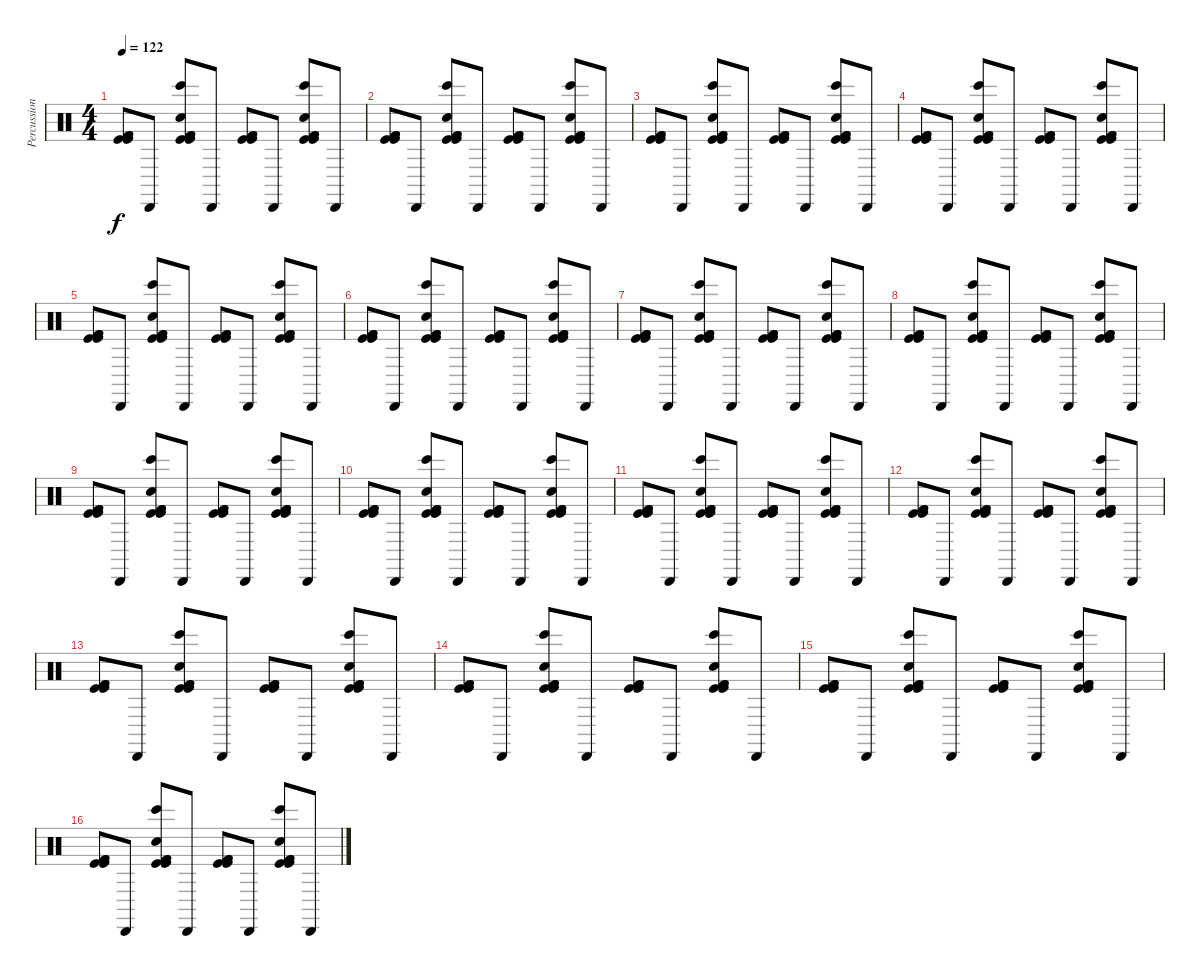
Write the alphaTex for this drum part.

\track ("Percussion" "Percussion") {instrument percussion}
\staff {score}
\articulation defaults
\ts (4 4)
\tempo 122
\clef neutral
\ks c
("Kick (hit)" "Kick (hit) 2" "Kick (hit) 2" "Kick (hit)").8{dy f} "Cabasa (hit)".8 ("Hand Clap (hit)" "Bongo High (hit)" "Kick (hit)" "Kick (hit)" "Kick (hit) 2" "Kick (hit) 2").8 "Cabasa (hit)".8 ("Kick (hit)" "Kick (hit)" "Kick (hit) 2" "Kick (hit) 2").8 "Cabasa (hit)".8 ("Hand Clap (hit)" "Bongo High (hit)" "Kick (hit) 2" "Kick (hit) 2" "Kick (hit)" "Kick (hit)").8 "Cabasa (hit)".8 |
("Kick (hit)" "Kick (hit) 2" "Kick (hit) 2" "Kick (hit)").8 "Cabasa (hit)".8 ("Hand Clap (hit)" "Bongo High (hit)" "Kick (hit)" "Kick (hit)" "Kick (hit) 2" "Kick (hit) 2").8 "Cabasa (hit)".8 ("Kick (hit)" "Kick (hit)" "Kick (hit) 2" "Kick (hit) 2").8 "Cabasa (hit)".8 ("Hand Clap (hit)" "Bongo High (hit)" "Kick (hit) 2" "Kick (hit) 2" "Kick (hit)" "Kick (hit)").8 "Cabasa (hit)".8 |
("Kick (hit)" "Kick (hit) 2" "Kick (hit) 2" "Kick (hit)").8 "Cabasa (hit)".8 ("Hand Clap (hit)" "Bongo High (hit)" "Kick (hit)" "Kick (hit)" "Kick (hit) 2" "Kick (hit) 2").8 "Cabasa (hit)".8 ("Kick (hit)" "Kick (hit)" "Kick (hit) 2" "Kick (hit) 2").8 "Cabasa (hit)".8 ("Hand Clap (hit)" "Bongo High (hit)" "Kick (hit) 2" "Kick (hit) 2" "Kick (hit)" "Kick (hit)").8 "Cabasa (hit)".8 |
("Kick (hit)" "Kick (hit) 2" "Kick (hit) 2" "Kick (hit)").8 "Cabasa (hit)".8 ("Hand Clap (hit)" "Bongo High (hit)" "Kick (hit)" "Kick (hit)" "Kick (hit) 2" "Kick (hit) 2").8 "Cabasa (hit)".8 ("Kick (hit)" "Kick (hit)" "Kick (hit) 2" "Kick (hit) 2").8 "Cabasa (hit)".8 ("Hand Clap (hit)" "Bongo High (hit)" "Kick (hit) 2" "Kick (hit) 2" "Kick (hit)" "Kick (hit)").8 "Cabasa (hit)".8 |
("Kick (hit)" "Kick (hit) 2" "Kick (hit) 2" "Kick (hit)").8 "Cabasa (hit)".8 ("Hand Clap (hit)" "Bongo High (hit)" "Kick (hit)" "Kick (hit)" "Kick (hit) 2" "Kick (hit) 2").8 "Cabasa (hit)".8 ("Kick (hit)" "Kick (hit)" "Kick (hit) 2" "Kick (hit) 2").8 "Cabasa (hit)".8 ("Hand Clap (hit)" "Bongo High (hit)" "Kick (hit) 2" "Kick (hit) 2" "Kick (hit)" "Kick (hit)").8 "Cabasa (hit)".8 |
("Kick (hit)" "Kick (hit) 2" "Kick (hit) 2" "Kick (hit)").8 "Cabasa (hit)".8 ("Hand Clap (hit)" "Bongo High (hit)" "Kick (hit)" "Kick (hit)" "Kick (hit) 2" "Kick (hit) 2").8 "Cabasa (hit)".8 ("Kick (hit)" "Kick (hit)" "Kick (hit) 2" "Kick (hit) 2").8 "Cabasa (hit)".8 ("Hand Clap (hit)" "Bongo High (hit)" "Kick (hit) 2" "Kick (hit) 2" "Kick (hit)" "Kick (hit)").8 "Cabasa (hit)".8 |
("Kick (hit)" "Kick (hit) 2" "Kick (hit) 2" "Kick (hit)").8 "Cabasa (hit)".8 ("Hand Clap (hit)" "Bongo High (hit)" "Kick (hit)" "Kick (hit)" "Kick (hit) 2" "Kick (hit) 2").8 "Cabasa (hit)".8 ("Kick (hit)" "Kick (hit)" "Kick (hit) 2" "Kick (hit) 2").8 "Cabasa (hit)".8 ("Hand Clap (hit)" "Bongo High (hit)" "Kick (hit) 2" "Kick (hit) 2" "Kick (hit)" "Kick (hit)").8 "Cabasa (hit)".8 |
("Kick (hit)" "Kick (hit) 2" "Kick (hit) 2" "Kick (hit)").8 "Cabasa (hit)".8 ("Hand Clap (hit)" "Bongo High (hit)" "Kick (hit)" "Kick (hit)" "Kick (hit) 2" "Kick (hit) 2").8 "Cabasa (hit)".8 ("Kick (hit)" "Kick (hit)" "Kick (hit) 2" "Kick (hit) 2").8 "Cabasa (hit)".8 ("Hand Clap (hit)" "Bongo High (hit)" "Kick (hit) 2" "Kick (hit) 2" "Kick (hit)" "Kick (hit)").8 "Cabasa (hit)".8 |
("Kick (hit)" "Kick (hit) 2" "Kick (hit) 2" "Kick (hit)").8 "Cabasa (hit)".8 ("Hand Clap (hit)" "Bongo High (hit)" "Kick (hit)" "Kick (hit)" "Kick (hit) 2" "Kick (hit) 2").8 "Cabasa (hit)".8 ("Kick (hit)" "Kick (hit)" "Kick (hit) 2" "Kick (hit) 2").8 "Cabasa (hit)".8 ("Hand Clap (hit)" "Bongo High (hit)" "Kick (hit) 2" "Kick (hit) 2" "Kick (hit)" "Kick (hit)").8 "Cabasa (hit)".8 |
("Kick (hit)" "Kick (hit) 2" "Kick (hit) 2" "Kick (hit)").8 "Cabasa (hit)".8 ("Hand Clap (hit)" "Bongo High (hit)" "Kick (hit)" "Kick (hit)" "Kick (hit) 2" "Kick (hit) 2").8 "Cabasa (hit)".8 ("Kick (hit)" "Kick (hit)" "Kick (hit) 2" "Kick (hit) 2").8 "Cabasa (hit)".8 ("Hand Clap (hit)" "Bongo High (hit)" "Kick (hit) 2" "Kick (hit) 2" "Kick (hit)" "Kick (hit)").8 "Cabasa (hit)".8 |
("Kick (hit)" "Kick (hit) 2" "Kick (hit) 2" "Kick (hit)").8 "Cabasa (hit)".8 ("Hand Clap (hit)" "Bongo High (hit)" "Kick (hit)" "Kick (hit)" "Kick (hit) 2" "Kick (hit) 2").8 "Cabasa (hit)".8 ("Kick (hit)" "Kick (hit)" "Kick (hit) 2" "Kick (hit) 2").8 "Cabasa (hit)".8 ("Hand Clap (hit)" "Bongo High (hit)" "Kick (hit) 2" "Kick (hit) 2" "Kick (hit)" "Kick (hit)").8 "Cabasa (hit)".8 |
("Kick (hit)" "Kick (hit) 2" "Kick (hit) 2" "Kick (hit)").8 "Cabasa (hit)".8 ("Hand Clap (hit)" "Bongo High (hit)" "Kick (hit)" "Kick (hit)" "Kick (hit) 2" "Kick (hit) 2").8 "Cabasa (hit)".8 ("Kick (hit)" "Kick (hit)" "Kick (hit) 2" "Kick (hit) 2").8 "Cabasa (hit)".8 ("Hand Clap (hit)" "Bongo High (hit)" "Kick (hit) 2" "Kick (hit) 2" "Kick (hit)" "Kick (hit)").8 "Cabasa (hit)".8 |
("Kick (hit)" "Kick (hit) 2" "Kick (hit) 2" "Kick (hit)").8 "Cabasa (hit)".8 ("Hand Clap (hit)" "Bongo High (hit)" "Kick (hit)" "Kick (hit)" "Kick (hit) 2" "Kick (hit) 2").8 "Cabasa (hit)".8 ("Kick (hit)" "Kick (hit)" "Kick (hit) 2" "Kick (hit) 2").8 "Cabasa (hit)".8 ("Hand Clap (hit)" "Bongo High (hit)" "Kick (hit) 2" "Kick (hit) 2" "Kick (hit)" "Kick (hit)").8 "Cabasa (hit)".8 |
("Kick (hit)" "Kick (hit) 2" "Kick (hit) 2" "Kick (hit)").8 "Cabasa (hit)".8 ("Hand Clap (hit)" "Bongo High (hit)" "Kick (hit)" "Kick (hit)" "Kick (hit) 2" "Kick (hit) 2").8 "Cabasa (hit)".8 ("Kick (hit)" "Kick (hit)" "Kick (hit) 2" "Kick (hit) 2").8 "Cabasa (hit)".8 ("Hand Clap (hit)" "Bongo High (hit)" "Kick (hit) 2" "Kick (hit) 2" "Kick (hit)" "Kick (hit)").8 "Cabasa (hit)".8 |
("Kick (hit)" "Kick (hit) 2" "Kick (hit) 2" "Kick (hit)").8 "Cabasa (hit)".8 ("Hand Clap (hit)" "Bongo High (hit)" "Kick (hit)" "Kick (hit)" "Kick (hit) 2" "Kick (hit) 2").8 "Cabasa (hit)".8 ("Kick (hit)" "Kick (hit)" "Kick (hit) 2" "Kick (hit) 2").8 "Cabasa (hit)".8 ("Hand Clap (hit)" "Bongo High (hit)" "Kick (hit) 2" "Kick (hit) 2" "Kick (hit)" "Kick (hit)").8 "Cabasa (hit)".8 |
("Kick (hit)" "Kick (hit) 2" "Kick (hit) 2" "Kick (hit)").8 "Cabasa (hit)".8 ("Hand Clap (hit)" "Bongo High (hit)" "Kick (hit)" "Kick (hit)" "Kick (hit) 2" "Kick (hit) 2").8 "Cabasa (hit)".8 ("Kick (hit)" "Kick (hit)" "Kick (hit) 2" "Kick (hit) 2").8 "Cabasa (hit)".8 ("Hand Clap (hit)" "Bongo High (hit)" "Kick (hit) 2" "Kick (hit) 2" "Kick (hit)" "Kick (hit)").8 "Cabasa (hit)".8
